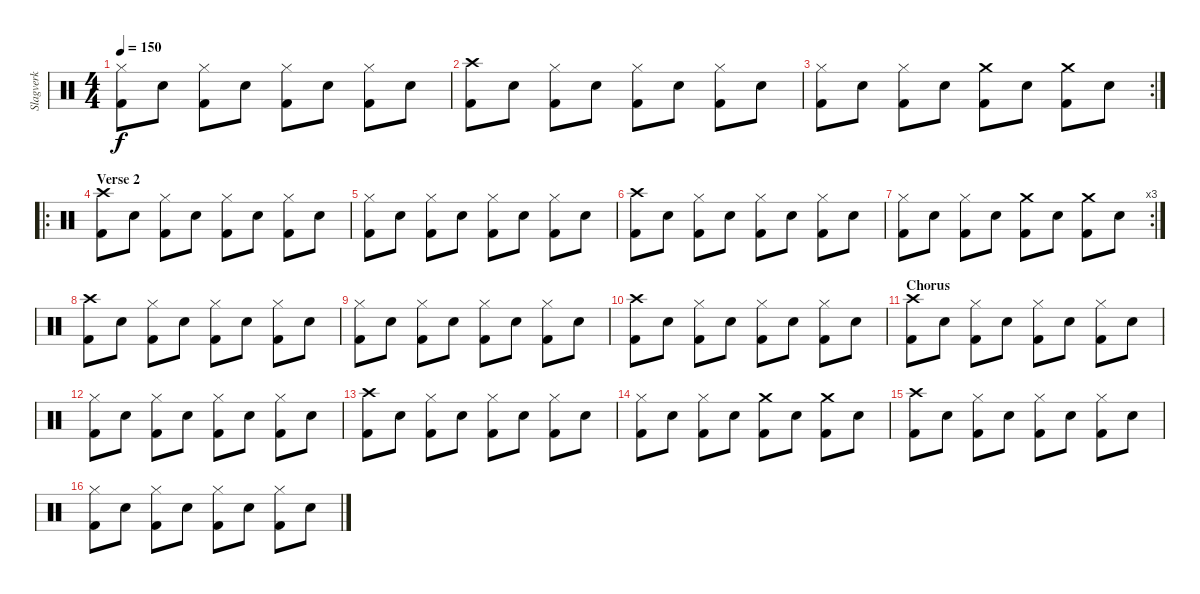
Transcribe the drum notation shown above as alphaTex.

\track ("Slagverk" "Slagverk") {instrument percussion}
\staff {score}
\articulation defaults
\ts (4 4)
\tempo 150
\clef neutral
\ks c
("Hi-Hat (closed)" "Kick (hit) 2").8{dy f} "Electric Snare (hit)".8 ("Hi-Hat (closed)" "Kick (hit) 2").8 "Electric Snare (hit)".8 ("Hi-Hat (closed)" "Kick (hit) 2").8 "Electric Snare (hit)".8 ("Hi-Hat (closed)" "Kick (hit) 2").8 "Electric Snare (hit)".8 |
("Crash high (hit)" "Kick (hit) 2").8 "Electric Snare (hit)".8 ("Hi-Hat (closed)" "Kick (hit) 2").8 "Electric Snare (hit)".8 ("Hi-Hat (closed)" "Kick (hit) 2").8 "Electric Snare (hit)".8 ("Hi-Hat (closed)" "Kick (hit) 2").8 "Electric Snare (hit)".8 |
\rc 2
("Hi-Hat (closed)" "Kick (hit) 2").8 "Electric Snare (hit)".8 ("Hi-Hat (closed)" "Kick (hit) 2").8 "Electric Snare (hit)".8 ("Crash medium (hit)" "Kick (hit) 2").8 "Electric Snare (hit)".8 ("Crash medium (hit)" "Kick (hit) 2").8 "Electric Snare (hit)".8 |
\ro
\section ("" "Verse 2")
("Crash high (hit)" "Kick (hit) 2").8 "Electric Snare (hit)".8 ("Hi-Hat (closed)" "Kick (hit) 2").8 "Electric Snare (hit)".8 ("Hi-Hat (closed)" "Kick (hit) 2").8 "Electric Snare (hit)".8 ("Hi-Hat (closed)" "Kick (hit) 2").8 "Electric Snare (hit)".8 |
("Hi-Hat (closed)" "Kick (hit) 2").8 "Electric Snare (hit)".8 ("Hi-Hat (closed)" "Kick (hit) 2").8 "Electric Snare (hit)".8 ("Hi-Hat (closed)" "Kick (hit) 2").8 "Electric Snare (hit)".8 ("Hi-Hat (closed)" "Kick (hit) 2").8 "Electric Snare (hit)".8 |
("Crash high (hit)" "Kick (hit) 2").8 "Electric Snare (hit)".8 ("Hi-Hat (closed)" "Kick (hit) 2").8 "Electric Snare (hit)".8 ("Hi-Hat (closed)" "Kick (hit) 2").8 "Electric Snare (hit)".8 ("Hi-Hat (closed)" "Kick (hit) 2").8 "Electric Snare (hit)".8 |
\rc 3
("Hi-Hat (closed)" "Kick (hit) 2").8 "Electric Snare (hit)".8 ("Hi-Hat (closed)" "Kick (hit) 2").8 "Electric Snare (hit)".8 ("Crash medium (hit)" "Kick (hit) 2").8 "Electric Snare (hit)".8 ("Crash medium (hit)" "Kick (hit) 2").8 "Electric Snare (hit)".8 |
("Crash high (hit)" "Kick (hit) 2").8 "Electric Snare (hit)".8 ("Hi-Hat (closed)" "Kick (hit) 2").8 "Electric Snare (hit)".8 ("Hi-Hat (closed)" "Kick (hit) 2").8 "Electric Snare (hit)".8 ("Hi-Hat (closed)" "Kick (hit) 2").8 "Electric Snare (hit)".8 |
("Hi-Hat (closed)" "Kick (hit) 2").8 "Electric Snare (hit)".8 ("Hi-Hat (closed)" "Kick (hit) 2").8 "Electric Snare (hit)".8 ("Hi-Hat (closed)" "Kick (hit) 2").8 "Electric Snare (hit)".8 ("Hi-Hat (closed)" "Kick (hit) 2").8 "Electric Snare (hit)".8 |
("Crash high (hit)" "Kick (hit) 2").8 "Electric Snare (hit)".8 ("Hi-Hat (closed)" "Kick (hit) 2").8 "Electric Snare (hit)".8 ("Hi-Hat (closed)" "Kick (hit) 2").8 "Electric Snare (hit)".8 ("Hi-Hat (closed)" "Kick (hit) 2").8 "Electric Snare (hit)".8 |
\section ("" "Chorus")
("Crash high (hit)" "Kick (hit) 2").8 "Electric Snare (hit)".8 ("Hi-Hat (closed)" "Kick (hit) 2").8 "Electric Snare (hit)".8 ("Hi-Hat (closed)" "Kick (hit) 2").8 "Electric Snare (hit)".8 ("Hi-Hat (closed)" "Kick (hit) 2").8 "Electric Snare (hit)".8 |
("Hi-Hat (closed)" "Kick (hit) 2").8 "Electric Snare (hit)".8 ("Hi-Hat (closed)" "Kick (hit) 2").8 "Electric Snare (hit)".8 ("Hi-Hat (closed)" "Kick (hit) 2").8 "Electric Snare (hit)".8 ("Hi-Hat (closed)" "Kick (hit) 2").8 "Electric Snare (hit)".8 |
("Crash high (hit)" "Kick (hit) 2").8 "Electric Snare (hit)".8 ("Hi-Hat (closed)" "Kick (hit) 2").8 "Electric Snare (hit)".8 ("Hi-Hat (closed)" "Kick (hit) 2").8 "Electric Snare (hit)".8 ("Hi-Hat (closed)" "Kick (hit) 2").8 "Electric Snare (hit)".8 |
("Hi-Hat (closed)" "Kick (hit) 2").8 "Electric Snare (hit)".8 ("Hi-Hat (closed)" "Kick (hit) 2").8 "Electric Snare (hit)".8 ("Crash medium (hit)" "Kick (hit) 2").8 "Electric Snare (hit)".8 ("Crash medium (hit)" "Kick (hit) 2").8 "Electric Snare (hit)".8 |
("Crash high (hit)" "Kick (hit) 2").8 "Electric Snare (hit)".8 ("Hi-Hat (closed)" "Kick (hit) 2").8 "Electric Snare (hit)".8 ("Hi-Hat (closed)" "Kick (hit) 2").8 "Electric Snare (hit)".8 ("Hi-Hat (closed)" "Kick (hit) 2").8 "Electric Snare (hit)".8 |
("Hi-Hat (closed)" "Kick (hit) 2").8 "Electric Snare (hit)".8 ("Hi-Hat (closed)" "Kick (hit) 2").8 "Electric Snare (hit)".8 ("Hi-Hat (closed)" "Kick (hit) 2").8 "Electric Snare (hit)".8 ("Hi-Hat (closed)" "Kick (hit) 2").8 "Electric Snare (hit)".8
